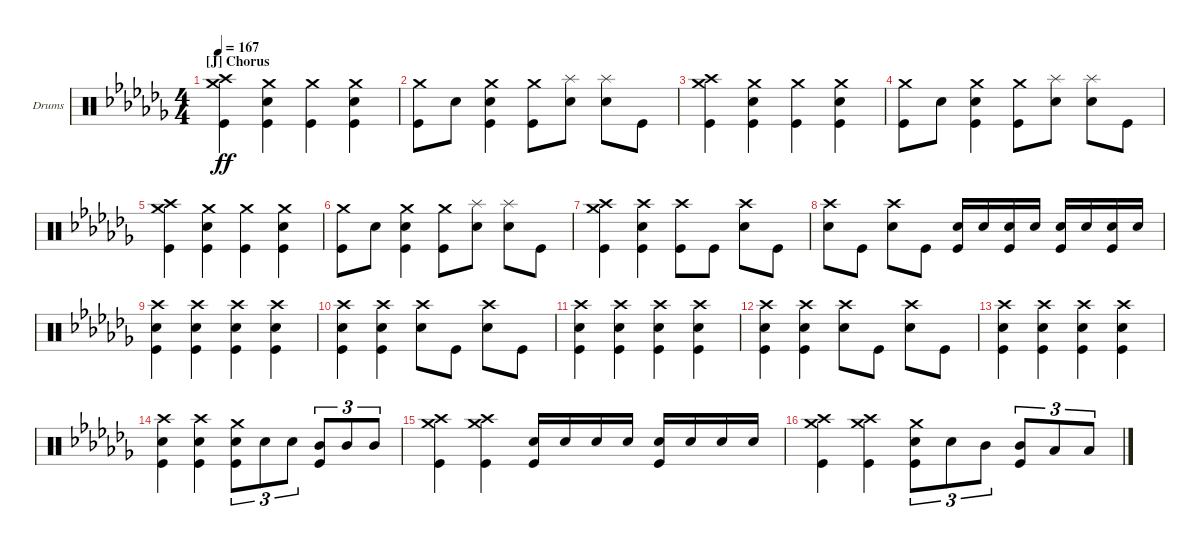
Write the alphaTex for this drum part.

\defaultSystemsLayout 4
\bracketExtendMode groupsimilarinstruments
\firstSystemTrackNameOrientation horizontal
\otherSystemsTrackNameOrientation horizontal
\track ("Drumkit" "Drums") {instrument percussion}
\staff {score}
\articulation defaults
\ts (4 4)
\section ("J" "Chorus")
\tempo 167
\clef neutral
\ks abminor
("Crash medium (hit)" "Crash high (hit)" "Kick (hit)").4{dy ff} ("Snare (hit) 2" "Kick (hit)" "Crash medium (hit)").4 ("Kick (hit)" "Crash medium (hit)").4 ("Snare (hit) 2" "Kick (hit)" "Crash medium (hit)").4 |
("Kick (hit)" "Crash medium (hit)").8 "Snare (hit) 2".8 ("Snare (hit) 2" "Kick (hit)" "Crash medium (hit)").4 ("Kick (hit)" "Crash medium (hit)").8 ("Snare (hit) 2" "Splash (hit)").8 ("Snare (hit) 2" "Splash (hit)").8 "Kick (hit)".8 |
("Crash medium (hit)" "Crash high (hit)" "Kick (hit)").4 ("Snare (hit) 2" "Kick (hit)" "Crash medium (hit)").4 ("Kick (hit)" "Crash medium (hit)").4 ("Snare (hit) 2" "Kick (hit)" "Crash medium (hit)").4 |
("Kick (hit)" "Crash medium (hit)").8 "Snare (hit) 2".8 ("Snare (hit) 2" "Kick (hit)" "Crash medium (hit)").4 ("Kick (hit)" "Crash medium (hit)").8 ("Snare (hit) 2" "Splash (hit)").8 ("Snare (hit) 2" "Splash (hit)").8 "Kick (hit)".8 |
("Crash medium (hit)" "Crash high (hit)" "Kick (hit)").4 ("Snare (hit) 2" "Kick (hit)" "Crash medium (hit)").4 ("Kick (hit)" "Crash medium (hit)").4 ("Snare (hit) 2" "Kick (hit)" "Crash medium (hit)").4 |
("Kick (hit)" "Crash medium (hit)").8 "Snare (hit) 2".8 ("Snare (hit) 2" "Kick (hit)" "Crash medium (hit)").4 ("Kick (hit)" "Crash medium (hit)").8 ("Snare (hit) 2" "Splash (hit)").8 ("Snare (hit) 2" "Splash (hit)").8 "Kick (hit)".8 |
("Kick (hit)" "Crash high (hit)" "Crash medium (hit)").4 ("Kick (hit)" "Snare (hit) 2" "Crash high (hit)").4 ("Kick (hit)" "Crash high (hit)").8 "Kick (hit)".8 ("Snare (hit) 2" "Crash high (hit)").8 "Kick (hit)".8 |
("Snare (hit) 2" "Crash high (hit)").8 "Kick (hit)".8 ("Snare (hit) 2" "Crash high (hit)").8 "Kick (hit)".8 ("Snare (hit) 2" "Kick (hit)").16 "Snare (hit) 2".16 ("Snare (hit) 2" "Kick (hit)").16 "Snare (hit) 2".16 ("Snare (hit) 2" "Kick (hit)").16 "Snare (hit) 2".16 ("Snare (hit) 2" "Kick (hit)").16 "Snare (hit) 2".16 |
("Crash high (hit)" "Snare (hit) 2" "Kick (hit)").4 ("Crash high (hit)" "Snare (hit) 2" "Kick (hit)").4 ("Crash high (hit)" "Snare (hit) 2" "Kick (hit)").4 ("Crash high (hit)" "Snare (hit) 2" "Kick (hit)").4 |
("Crash high (hit)" "Snare (hit) 2" "Kick (hit)").4 ("Crash high (hit)" "Snare (hit) 2" "Kick (hit)").4 ("Crash high (hit)" "Snare (hit) 2").8 "Kick (hit)".8 ("Crash high (hit)" "Snare (hit) 2").8 "Kick (hit)".8 |
("Crash high (hit)" "Snare (hit) 2" "Kick (hit)").4 ("Crash high (hit)" "Snare (hit) 2" "Kick (hit)").4 ("Crash high (hit)" "Snare (hit) 2" "Kick (hit)").4 ("Crash high (hit)" "Snare (hit) 2" "Kick (hit)").4 |
("Crash high (hit)" "Snare (hit) 2" "Kick (hit)").4 ("Crash high (hit)" "Snare (hit) 2" "Kick (hit)").4 ("Crash high (hit)" "Snare (hit) 2").8 "Kick (hit)".8 ("Crash high (hit)" "Snare (hit) 2").8 "Kick (hit)".8 |
("Crash high (hit)" "Snare (hit) 2" "Kick (hit)").4 ("Crash high (hit)" "Snare (hit) 2" "Kick (hit)").4 ("Crash high (hit)" "Snare (hit) 2" "Kick (hit)").4 ("Crash high (hit)" "Snare (hit) 2" "Kick (hit)").4 |
("Crash high (hit)" "Snare (hit) 2" "Kick (hit)").4 ("Crash high (hit)" "Snare (hit) 2" "Kick (hit)").4 ("Snare (hit) 2" "Crash medium (hit)" "Kick (hit)").8{tu (3 2)} "Snare (hit) 2".8{tu (3 2)} "Snare (hit) 2".8{tu (3 2)} ("Mid Tom (hit)" "Kick (hit)").8{tu (3 2)} "Mid Tom (hit)".8{tu (3 2)} "Mid Tom (hit)".8{tu (3 2)} |
("Crash high (hit)" "Kick (hit)" "Crash medium (hit)").4 ("Crash high (hit)" "Kick (hit)" "Crash medium (hit)").4 ("Snare (hit) 2" "Kick (hit)").16 "Snare (hit) 2".16 "Snare (hit) 2".16 "Snare (hit) 2".16 ("Snare (hit) 2" "Kick (hit)").16 "Snare (hit) 2".16 "Snare (hit) 2".16 "Snare (hit) 2".16 |
("Crash high (hit)" "Kick (hit)" "Crash medium (hit)").4 ("Crash high (hit)" "Kick (hit)" "Crash medium (hit)").4 ("Snare (hit) 2" "Crash medium (hit)" "Kick (hit)").8{tu (3 2)} "Snare (hit) 2".8{tu (3 2)} "Mid Tom (hit)".8{tu (3 2)} ("Mid Tom (hit)" "Kick (hit)").8{tu (3 2)} "Low Tom (hit)".8{tu (3 2)} "Low Tom (hit)".8{tu (3 2)}
